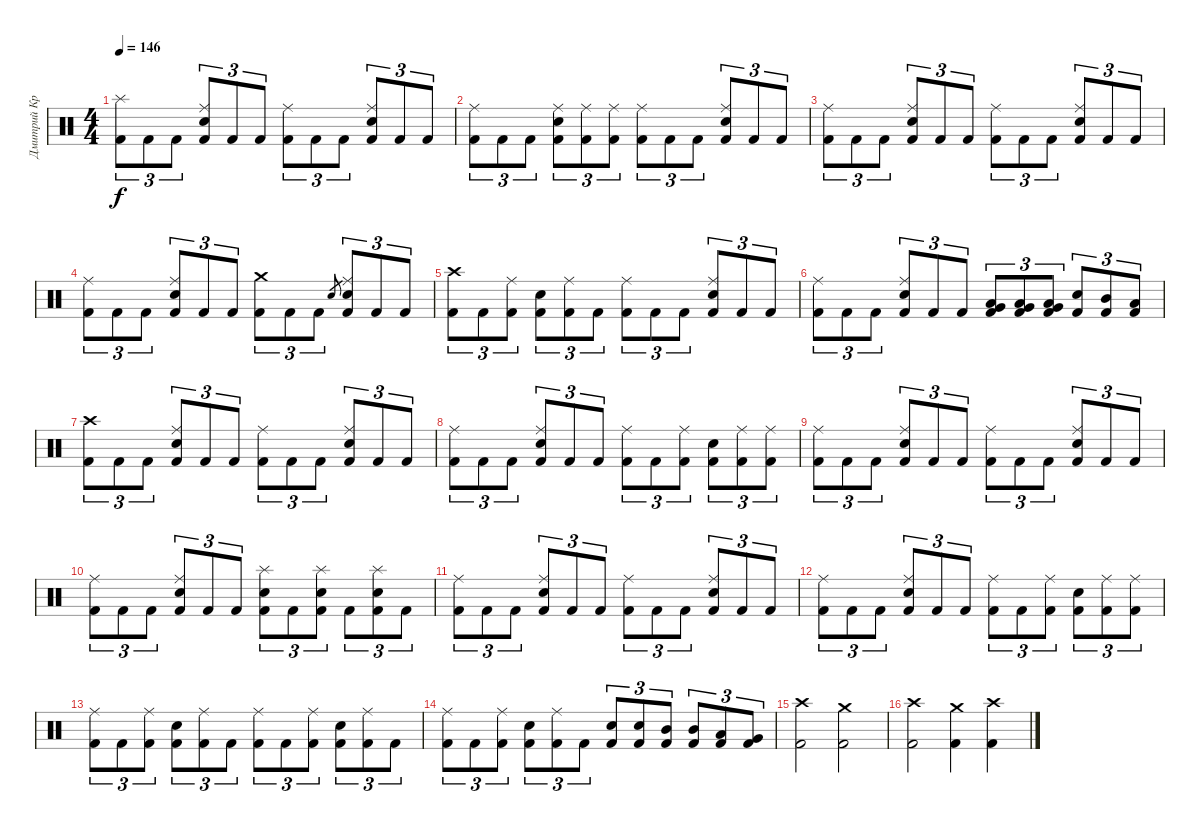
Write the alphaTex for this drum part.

\track ("Дмитрий Кривенков" "Дмитрий Кр") {instrument percussion}
\staff {score}
\articulation defaults
\ts (4 4)
\tempo 146
\clef neutral
\ks c
("Splash (hit)" "Kick (hit) 2").8{tu (3 2) dy f} "Kick (hit) 2".8{tu (3 2)} "Kick (hit) 2".8{tu (3 2)} ("Ride (middle)" "Electric Snare (hit)" "Kick (hit) 2").8{tu (3 2)} "Kick (hit) 2".8{tu (3 2)} "Kick (hit) 2".8{tu (3 2)} ("Ride (middle)" "Kick (hit) 2").8{tu (3 2)} "Kick (hit) 2".8{tu (3 2)} "Kick (hit) 2".8{tu (3 2)} ("Ride (middle)" "Electric Snare (hit)" "Kick (hit) 2").8{tu (3 2)} "Kick (hit) 2".8{tu (3 2)} "Kick (hit) 2".8{tu (3 2)} |
("Ride (middle)" "Kick (hit) 2").8{tu (3 2)} "Kick (hit) 2".8{tu (3 2)} "Kick (hit) 2".8{tu (3 2)} ("Ride (middle)" "Electric Snare (hit)" "Kick (hit) 2").8{tu (3 2)} ("Ride (middle)" "Kick (hit) 2").8{tu (3 2)} ("Ride (middle)" "Kick (hit) 2").8{tu (3 2)} ("Ride (middle)" "Kick (hit) 2").8{tu (3 2)} "Kick (hit) 2".8{tu (3 2)} "Kick (hit) 2".8{tu (3 2)} ("Ride (middle)" "Electric Snare (hit)" "Kick (hit) 2").8{tu (3 2)} "Kick (hit) 2".8{tu (3 2)} "Kick (hit) 2".8{tu (3 2)} |
("Ride (middle)" "Kick (hit) 2").8{tu (3 2)} "Kick (hit) 2".8{tu (3 2)} "Kick (hit) 2".8{tu (3 2)} ("Ride (middle)" "Electric Snare (hit)" "Kick (hit) 2").8{tu (3 2)} "Kick (hit) 2".8{tu (3 2)} "Kick (hit) 2".8{tu (3 2)} ("Ride (middle)" "Kick (hit) 2").8{tu (3 2)} "Kick (hit) 2".8{tu (3 2)} "Kick (hit) 2".8{tu (3 2)} ("Ride (middle)" "Electric Snare (hit)" "Kick (hit) 2").8{tu (3 2)} "Kick (hit) 2".8{tu (3 2)} "Kick (hit) 2".8{tu (3 2)} |
("Ride (middle)" "Kick (hit) 2").8{tu (3 2)} "Kick (hit) 2".8{tu (3 2)} "Kick (hit) 2".8{tu (3 2)} ("Ride (middle)" "Electric Snare (hit)" "Kick (hit) 2").8{tu (3 2)} "Kick (hit) 2".8{tu (3 2)} "Kick (hit) 2".8{tu (3 2)} ("Crash medium (hit)" "Kick (hit) 2").8{tu (3 2)} "Kick (hit) 2".8{tu (3 2)} "Kick (hit) 2".8{tu (3 2)} "Electric Snare (hit)".8{gr} ("Ride (middle)" "Electric Snare (hit)" "Kick (hit) 2").8{tu (3 2)} "Kick (hit) 2".8{tu (3 2)} "Kick (hit) 2".8{tu (3 2)} |
("Crash high (hit)" "Kick (hit) 2").8{tu (3 2)} "Kick (hit) 2".8{tu (3 2)} ("Ride (middle)" "Kick (hit) 2").8{tu (3 2)} ("Electric Snare (hit)" "Kick (hit) 2").8{tu (3 2)} ("Ride (middle)" "Kick (hit) 2").8{tu (3 2)} "Kick (hit) 2".8{tu (3 2)} ("Ride (middle)" "Kick (hit) 2").8{tu (3 2)} "Kick (hit) 2".8{tu (3 2)} "Kick (hit) 2".8{tu (3 2)} ("Ride (middle)" "Electric Snare (hit)" "Kick (hit) 2").8{tu (3 2)} "Kick (hit) 2".8{tu (3 2)} "Kick (hit) 2".8{tu (3 2)} |
("Ride (middle)" "Kick (hit) 2").8{tu (3 2)} "Kick (hit) 2".8{tu (3 2)} "Kick (hit) 2".8{tu (3 2)} ("Ride (middle)" "Electric Snare (hit)" "Kick (hit) 2").8{tu (3 2)} "Kick (hit) 2".8{tu (3 2)} "Kick (hit) 2".8{tu (3 2)} ("Very Low Tom (hit)" "Low Floor Tom (hit)" "Kick (hit) 2").8{tu (3 2)} ("Very Low Tom (hit)" "Low Floor Tom (hit)" "Kick (hit) 2").8{tu (3 2)} ("Very Low Tom (hit)" "Low Floor Tom (hit)" "Kick (hit) 2").8{tu (3 2)} ("Electric Snare (hit)" "Kick (hit) 2").8{tu (3 2)} ("Mid Tom (hit)" "Kick (hit) 2").8{tu (3 2)} ("Low Tom (hit)" "Kick (hit) 2").8{tu (3 2)} |
("Crash high (hit)" "Kick (hit) 2").8{tu (3 2)} "Kick (hit) 2".8{tu (3 2)} "Kick (hit) 2".8{tu (3 2)} ("Ride (middle)" "Electric Snare (hit)" "Kick (hit) 2").8{tu (3 2)} "Kick (hit) 2".8{tu (3 2)} "Kick (hit) 2".8{tu (3 2)} ("Ride (middle)" "Kick (hit) 2").8{tu (3 2)} "Kick (hit) 2".8{tu (3 2)} "Kick (hit) 2".8{tu (3 2)} ("Ride (middle)" "Electric Snare (hit)" "Kick (hit) 2").8{tu (3 2)} "Kick (hit) 2".8{tu (3 2)} "Kick (hit) 2".8{tu (3 2)} |
("Ride (middle)" "Kick (hit) 2").8{tu (3 2)} "Kick (hit) 2".8{tu (3 2)} "Kick (hit) 2".8{tu (3 2)} ("Ride (middle)" "Electric Snare (hit)" "Kick (hit) 2").8{tu (3 2)} "Kick (hit) 2".8{tu (3 2)} "Kick (hit) 2".8{tu (3 2)} ("Ride (middle)" "Kick (hit) 2").8{tu (3 2)} "Kick (hit) 2".8{tu (3 2)} ("Ride (middle)" "Kick (hit) 2").8{tu (3 2)} ("Electric Snare (hit)" "Kick (hit) 2").8{tu (3 2)} ("Ride (middle)" "Kick (hit) 2").8{tu (3 2)} ("Ride (middle)" "Kick (hit) 2").8{tu (3 2)} |
("Ride (middle)" "Kick (hit) 2").8{tu (3 2)} "Kick (hit) 2".8{tu (3 2)} "Kick (hit) 2".8{tu (3 2)} ("Ride (middle)" "Electric Snare (hit)" "Kick (hit) 2").8{tu (3 2)} "Kick (hit) 2".8{tu (3 2)} "Kick (hit) 2".8{tu (3 2)} ("Ride (middle)" "Kick (hit) 2").8{tu (3 2)} "Kick (hit) 2".8{tu (3 2)} "Kick (hit) 2".8{tu (3 2)} ("Ride (middle)" "Electric Snare (hit)" "Kick (hit) 2").8{tu (3 2)} "Kick (hit) 2".8{tu (3 2)} "Kick (hit) 2".8{tu (3 2)} |
("Ride (middle)" "Kick (hit) 2").8{tu (3 2)} "Kick (hit) 2".8{tu (3 2)} "Kick (hit) 2".8{tu (3 2)} ("Ride (middle)" "Electric Snare (hit)" "Kick (hit) 2").8{tu (3 2)} "Kick (hit) 2".8{tu (3 2)} "Kick (hit) 2".8{tu (3 2)} ("Splash (hit)" "Electric Snare (hit)" "Kick (hit) 2").8{tu (3 2)} "Kick (hit) 2".8{tu (3 2)} ("Splash (hit)" "Electric Snare (hit)" "Kick (hit) 2").8{tu (3 2)} "Kick (hit) 2".8{tu (3 2)} ("Splash (hit)" "Electric Snare (hit)" "Kick (hit) 2").8{tu (3 2)} "Kick (hit) 2".8{tu (3 2)} |
("Ride (middle)" "Kick (hit) 2").8{tu (3 2)} "Kick (hit) 2".8{tu (3 2)} "Kick (hit) 2".8{tu (3 2)} ("Ride (middle)" "Electric Snare (hit)" "Kick (hit) 2").8{tu (3 2)} "Kick (hit) 2".8{tu (3 2)} "Kick (hit) 2".8{tu (3 2)} ("Ride (middle)" "Kick (hit) 2").8{tu (3 2)} "Kick (hit) 2".8{tu (3 2)} "Kick (hit) 2".8{tu (3 2)} ("Ride (middle)" "Electric Snare (hit)" "Kick (hit) 2").8{tu (3 2)} "Kick (hit) 2".8{tu (3 2)} "Kick (hit) 2".8{tu (3 2)} |
("Ride (middle)" "Kick (hit) 2").8{tu (3 2)} "Kick (hit) 2".8{tu (3 2)} "Kick (hit) 2".8{tu (3 2)} ("Ride (middle)" "Electric Snare (hit)" "Kick (hit) 2").8{tu (3 2)} "Kick (hit) 2".8{tu (3 2)} "Kick (hit) 2".8{tu (3 2)} ("Ride (middle)" "Kick (hit) 2").8{tu (3 2)} "Kick (hit) 2".8{tu (3 2)} ("Ride (middle)" "Kick (hit) 2").8{tu (3 2)} ("Electric Snare (hit)" "Kick (hit) 2").8{tu (3 2)} ("Ride (middle)" "Kick (hit) 2").8{tu (3 2)} ("Ride (middle)" "Kick (hit) 2").8{tu (3 2)} |
("Ride (middle)" "Kick (hit) 2").8{tu (3 2)} "Kick (hit) 2".8{tu (3 2)} ("Ride (middle)" "Kick (hit) 2").8{tu (3 2)} ("Electric Snare (hit)" "Kick (hit) 2").8{tu (3 2)} ("Ride (middle)" "Kick (hit) 2").8{tu (3 2)} "Kick (hit) 2".8{tu (3 2)} ("Ride (middle)" "Kick (hit) 2").8{tu (3 2)} "Kick (hit) 2".8{tu (3 2)} ("Ride (middle)" "Kick (hit) 2").8{tu (3 2)} ("Electric Snare (hit)" "Kick (hit) 2").8{tu (3 2)} ("Ride (middle)" "Kick (hit) 2").8{tu (3 2)} "Kick (hit) 2".8{tu (3 2)} |
("Ride (middle)" "Kick (hit) 2").8{tu (3 2)} "Kick (hit) 2".8{tu (3 2)} ("Ride (middle)" "Kick (hit) 2").8{tu (3 2)} ("Electric Snare (hit)" "Kick (hit) 2").8{tu (3 2)} ("Ride (middle)" "Kick (hit) 2").8{tu (3 2)} "Kick (hit) 2".8{tu (3 2)} ("Electric Snare (hit)" "Kick (hit) 2").8{tu (3 2)} ("Electric Snare (hit)" "Kick (hit) 2").8{tu (3 2)} ("Mid Tom (hit)" "Kick (hit) 2").8{tu (3 2)} ("Mid Tom (hit)" "Kick (hit) 2").8{tu (3 2)} ("Low Tom (hit)" "Kick (hit) 2").8{tu (3 2)} ("Very Low Tom (hit)" "Kick (hit) 2").8{tu (3 2)} |
("Crash high (hit)" "Kick (hit) 2").2 ("Crash medium (hit)" "Kick (hit) 2").2 |
("Crash high (hit)" "Kick (hit) 2").2 ("Crash medium (hit)" "Kick (hit) 2").4 ("Crash high (hit)" "Kick (hit) 2").4
